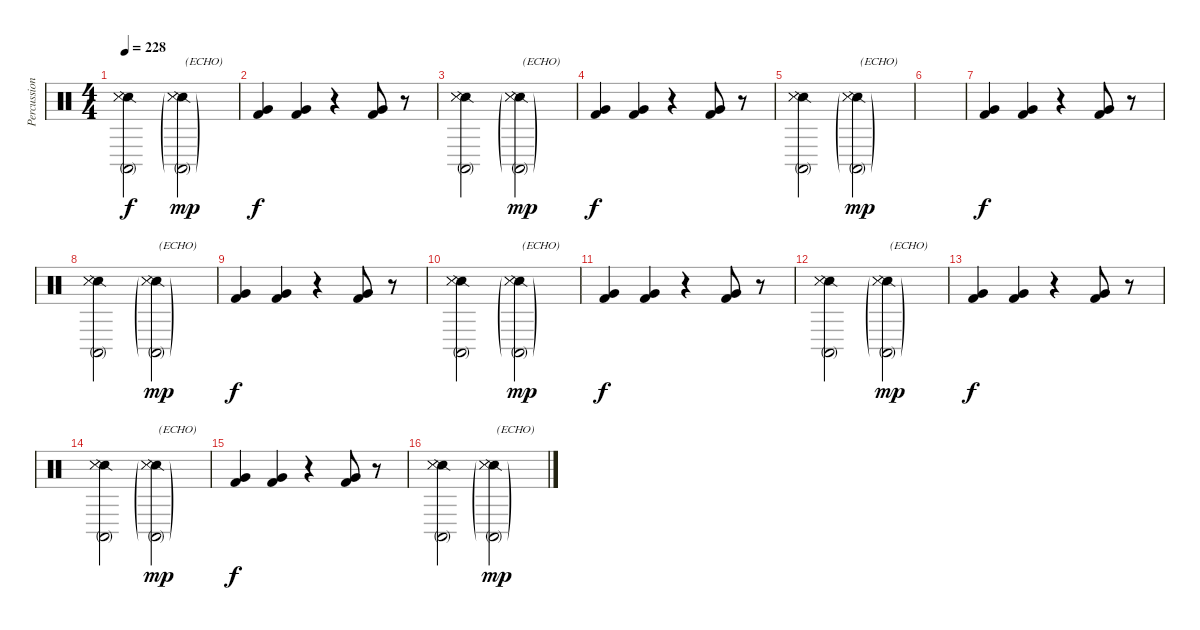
\track ("Percussions" "Percussion") {instrument percussion}
\staff {score}
\articulation defaults
\ts (4 4)
\tempo 228
\clef neutral
\ks c
("Snare (side stick) 2" "Snare (side stick) 3" "Conga high (mute)" "Metronome (hit)").2{dy f} ("Snare (side stick) 2"{g} "Snare (side stick) 3"{g} "Conga high (mute)"{g} "Metronome (hit)"{g}).2{txt "(ECHO)" dy mp} |
("Kick (hit) 2" "Very Low Tom (hit)").4{dy f} ("Kick (hit) 2" "Very Low Tom (hit)").4 r.4 ("Kick (hit) 2" "Very Low Tom (hit)").8 r.8 |
("Snare (side stick) 2" "Snare (side stick) 3" "Conga high (mute)" "Metronome (hit)").2 ("Snare (side stick) 2"{g} "Snare (side stick) 3"{g} "Conga high (mute)"{g} "Metronome (hit)"{g}).2{txt "(ECHO)" dy mp} |
("Kick (hit) 2" "Very Low Tom (hit)").4{dy f} ("Kick (hit) 2" "Very Low Tom (hit)").4 r.4 ("Kick (hit) 2" "Very Low Tom (hit)").8 r.8 |
("Snare (side stick) 2" "Snare (side stick) 3" "Conga high (mute)" "Metronome (hit)").2 ("Snare (side stick) 2"{g} "Snare (side stick) 3"{g} "Conga high (mute)"{g} "Metronome (hit)"{g}).2{txt "(ECHO)" dy mp} |
|
("Kick (hit) 2" "Very Low Tom (hit)").4{dy f} ("Kick (hit) 2" "Very Low Tom (hit)").4 r.4 ("Kick (hit) 2" "Very Low Tom (hit)").8 r.8 |
("Snare (side stick) 2" "Snare (side stick) 3" "Conga high (mute)" "Metronome (hit)").2 ("Snare (side stick) 2"{g} "Snare (side stick) 3"{g} "Conga high (mute)"{g} "Metronome (hit)"{g}).2{txt "(ECHO)" dy mp} |
("Kick (hit) 2" "Very Low Tom (hit)").4{dy f} ("Kick (hit) 2" "Very Low Tom (hit)").4 r.4 ("Kick (hit) 2" "Very Low Tom (hit)").8 r.8 |
("Snare (side stick) 2" "Snare (side stick) 3" "Conga high (mute)" "Metronome (hit)").2 ("Snare (side stick) 2"{g} "Snare (side stick) 3"{g} "Conga high (mute)"{g} "Metronome (hit)"{g}).2{txt "(ECHO)" dy mp} |
("Kick (hit) 2" "Very Low Tom (hit)").4{dy f} ("Kick (hit) 2" "Very Low Tom (hit)").4 r.4 ("Kick (hit) 2" "Very Low Tom (hit)").8 r.8 |
("Snare (side stick) 2" "Snare (side stick) 3" "Conga high (mute)" "Metronome (hit)").2 ("Snare (side stick) 2"{g} "Snare (side stick) 3"{g} "Conga high (mute)"{g} "Metronome (hit)"{g}).2{txt "(ECHO)" dy mp} |
("Kick (hit) 2" "Very Low Tom (hit)").4{dy f} ("Kick (hit) 2" "Very Low Tom (hit)").4 r.4 ("Kick (hit) 2" "Very Low Tom (hit)").8 r.8 |
("Snare (side stick) 2" "Snare (side stick) 3" "Conga high (mute)" "Metronome (hit)").2 ("Snare (side stick) 2"{g} "Snare (side stick) 3"{g} "Conga high (mute)"{g} "Metronome (hit)"{g}).2{txt "(ECHO)" dy mp} |
("Kick (hit) 2" "Very Low Tom (hit)").4{dy f} ("Kick (hit) 2" "Very Low Tom (hit)").4 r.4 ("Kick (hit) 2" "Very Low Tom (hit)").8 r.8 |
("Snare (side stick) 2" "Snare (side stick) 3" "Conga high (mute)" "Metronome (hit)").2 ("Snare (side stick) 2"{g} "Snare (side stick) 3"{g} "Conga high (mute)"{g} "Metronome (hit)"{g}).2{txt "(ECHO)" dy mp}
